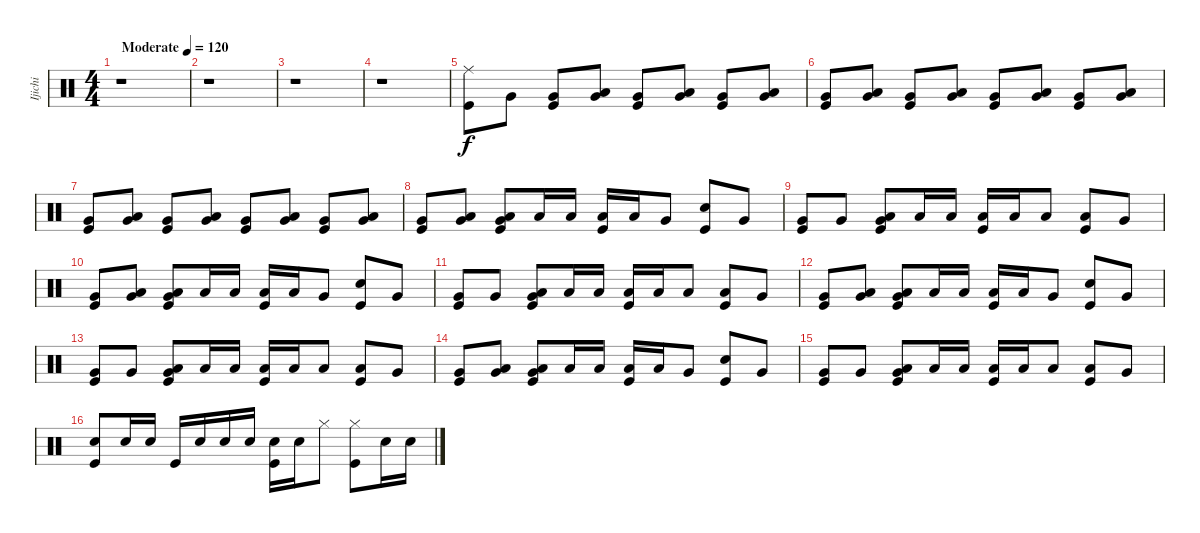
\track ("Ijichi" "Ijichi") {instrument percussion}
\staff {score}
\articulation defaults
\ts (4 4)
\tempo (120 "Moderate")
\clef neutral
\ks c
r.1{dy f} |
r.1 |
r.1 |
r.1 |
("Ride (middle)" "Kick (hit)").8 "Very Low Tom (hit)".8 ("Very Low Tom (hit)" "Kick (hit)").8 ("Low Tom (hit)" "Very Low Tom (hit)").8 ("Very Low Tom (hit)" "Kick (hit)").8 ("Low Tom (hit)" "Very Low Tom (hit)").8 ("Very Low Tom (hit)" "Kick (hit)").8 ("Low Tom (hit)" "Very Low Tom (hit)").8 |
("Very Low Tom (hit)" "Kick (hit)").8 ("Low Tom (hit)" "Very Low Tom (hit)").8 ("Very Low Tom (hit)" "Kick (hit)").8 ("Low Tom (hit)" "Very Low Tom (hit)").8 ("Very Low Tom (hit)" "Kick (hit)").8 ("Low Tom (hit)" "Very Low Tom (hit)").8 ("Very Low Tom (hit)" "Kick (hit)").8 ("Low Tom (hit)" "Very Low Tom (hit)").8 |
("Very Low Tom (hit)" "Kick (hit)").8 ("Low Tom (hit)" "Very Low Tom (hit)").8 ("Very Low Tom (hit)" "Kick (hit)").8 ("Low Tom (hit)" "Very Low Tom (hit)").8 ("Very Low Tom (hit)" "Kick (hit)").8 ("Low Tom (hit)" "Very Low Tom (hit)").8 ("Very Low Tom (hit)" "Kick (hit)").8 ("Low Tom (hit)" "Very Low Tom (hit)").8 |
("Very Low Tom (hit)" "Kick (hit)").8 ("Low Tom (hit)" "Very Low Tom (hit)").8 ("Low Tom (hit)" "Very Low Tom (hit)" "Kick (hit)").8 "Low Tom (hit)".16 "Low Tom (hit)".16 ("Low Tom (hit)" "Kick (hit)").16 "Low Tom (hit)".16 "Very Low Tom (hit)".8 ("Snare (hit) 2" "Kick (hit)").8 "Very Low Tom (hit)".8 |
("Very Low Tom (hit)" "Kick (hit)").8 "Very Low Tom (hit)".8 ("Low Tom (hit)" "Very Low Tom (hit)" "Kick (hit)").8 "Low Tom (hit)".16 "Low Tom (hit)".16 ("Low Tom (hit)" "Kick (hit)").16 "Low Tom (hit)".16 "Low Tom (hit)".8 ("Low Tom (hit)" "Kick (hit)").8 "Very Low Tom (hit)".8 |
("Very Low Tom (hit)" "Kick (hit)").8 ("Low Tom (hit)" "Very Low Tom (hit)").8 ("Low Tom (hit)" "Very Low Tom (hit)" "Kick (hit)").8 "Low Tom (hit)".16 "Low Tom (hit)".16 ("Low Tom (hit)" "Kick (hit)").16 "Low Tom (hit)".16 "Very Low Tom (hit)".8 ("Snare (hit) 2" "Kick (hit)").8 "Very Low Tom (hit)".8 |
("Very Low Tom (hit)" "Kick (hit)").8 "Very Low Tom (hit)".8 ("Low Tom (hit)" "Very Low Tom (hit)" "Kick (hit)").8 "Low Tom (hit)".16 "Low Tom (hit)".16 ("Low Tom (hit)" "Kick (hit)").16 "Low Tom (hit)".16 "Low Tom (hit)".8 ("Low Tom (hit)" "Kick (hit)").8 "Very Low Tom (hit)".8 |
("Very Low Tom (hit)" "Kick (hit)").8 ("Low Tom (hit)" "Very Low Tom (hit)").8 ("Low Tom (hit)" "Very Low Tom (hit)" "Kick (hit)").8 "Low Tom (hit)".16 "Low Tom (hit)".16 ("Low Tom (hit)" "Kick (hit)").16 "Low Tom (hit)".16 "Very Low Tom (hit)".8 ("Snare (hit) 2" "Kick (hit)").8 "Very Low Tom (hit)".8 |
("Very Low Tom (hit)" "Kick (hit)").8 "Very Low Tom (hit)".8 ("Low Tom (hit)" "Very Low Tom (hit)" "Kick (hit)").8 "Low Tom (hit)".16 "Low Tom (hit)".16 ("Low Tom (hit)" "Kick (hit)").16 "Low Tom (hit)".16 "Low Tom (hit)".8 ("Low Tom (hit)" "Kick (hit)").8 "Very Low Tom (hit)".8 |
("Very Low Tom (hit)" "Kick (hit)").8 ("Low Tom (hit)" "Very Low Tom (hit)").8 ("Low Tom (hit)" "Very Low Tom (hit)" "Kick (hit)").8 "Low Tom (hit)".16 "Low Tom (hit)".16 ("Low Tom (hit)" "Kick (hit)").16 "Low Tom (hit)".16 "Very Low Tom (hit)".8 ("Snare (hit) 2" "Kick (hit)").8 "Very Low Tom (hit)".8 |
("Very Low Tom (hit)" "Kick (hit)").8 "Very Low Tom (hit)".8 ("Low Tom (hit)" "Very Low Tom (hit)" "Kick (hit)").8 "Low Tom (hit)".16 "Low Tom (hit)".16 ("Low Tom (hit)" "Kick (hit)").16 "Low Tom (hit)".16 "Low Tom (hit)".8 ("Low Tom (hit)" "Kick (hit)").8 "Very Low Tom (hit)".8 |
("Snare (hit) 2" "Kick (hit)").8 "Snare (hit) 2".16 "Snare (hit) 2".16 "Kick (hit)".16 "Snare (hit) 2".16 "Snare (hit) 2".16 "Snare (hit) 2".16 ("Snare (hit) 2" "Kick (hit)").16 "Snare (hit) 2".16 "Hi-Hat (closed)".8 ("Hi-Hat (closed)" "Kick (hit)").8 "Snare (hit) 2".16 "Snare (hit) 2".16
